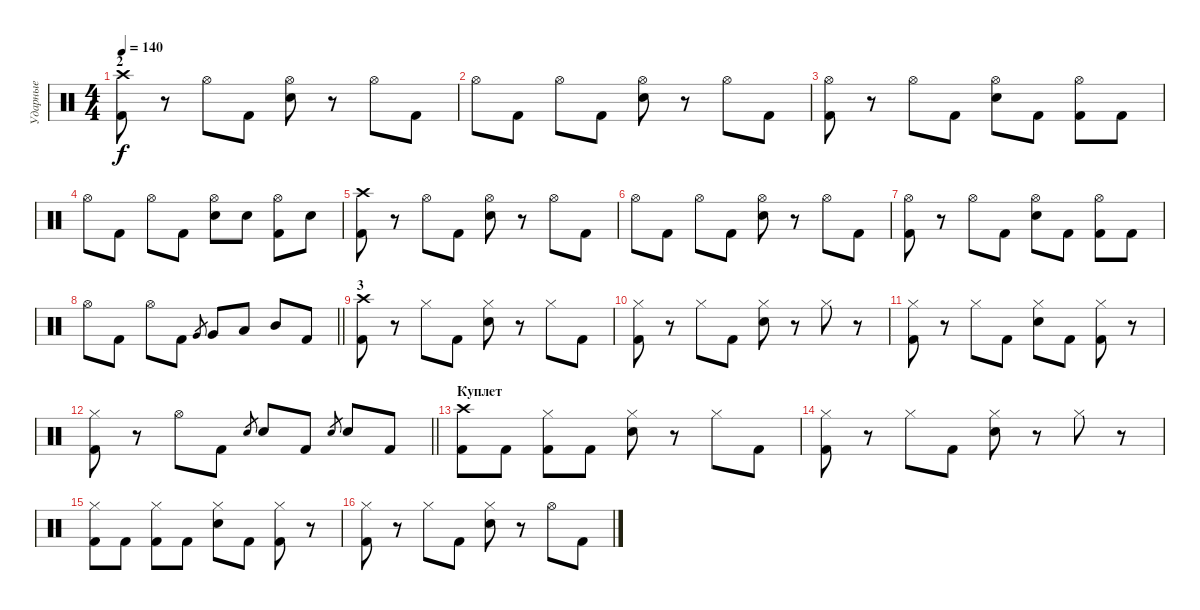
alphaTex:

\track ("Ударные" "Ударные") {instrument percussion}
\staff {score}
\articulation defaults
\ts (4 4)
\section ("" "2")
\tempo 140
\clef neutral
\ks c
("Crash high (hit)" "Kick (hit) 2").8{dy f} r.8 "Hi-Hat (open)".8 "Kick (hit) 2".8 ("Hi-Hat (open)" "Snare (hit) 2").8 r.8 "Hi-Hat (open)".8 "Kick (hit) 2".8 |
"Hi-Hat (open)".8 "Kick (hit) 2".8 "Hi-Hat (open)".8 "Kick (hit) 2".8 ("Hi-Hat (open)" "Snare (hit) 2").8 r.8 "Hi-Hat (open)".8 "Kick (hit) 2".8 |
("Hi-Hat (open)" "Kick (hit) 2").8 r.8 "Hi-Hat (open)".8 "Kick (hit) 2".8 ("Hi-Hat (open)" "Snare (hit) 2").8 "Kick (hit) 2".8 ("Hi-Hat (open)" "Kick (hit) 2").8 "Kick (hit) 2".8 |
"Hi-Hat (open)".8 "Kick (hit) 2".8 "Hi-Hat (open)".8 "Kick (hit) 2".8 ("Hi-Hat (open)" "Snare (hit) 2").8 "Snare (hit) 2".8 ("Hi-Hat (open)" "Kick (hit) 2").8 "Snare (hit) 2".8 |
("Crash high (hit)" "Kick (hit) 2").8 r.8 "Hi-Hat (open)".8 "Kick (hit) 2".8 ("Hi-Hat (open)" "Snare (hit) 2").8 r.8 "Hi-Hat (open)".8 "Kick (hit) 2".8 |
"Hi-Hat (open)".8 "Kick (hit) 2".8 "Hi-Hat (open)".8 "Kick (hit) 2".8 ("Hi-Hat (open)" "Snare (hit) 2").8 r.8 "Hi-Hat (open)".8 "Kick (hit) 2".8 |
("Hi-Hat (open)" "Kick (hit) 2").8 r.8 "Hi-Hat (open)".8 "Kick (hit) 2".8 ("Hi-Hat (open)" "Snare (hit) 2").8 "Kick (hit) 2".8 ("Hi-Hat (open)" "Kick (hit) 2").8 "Kick (hit) 2".8 |
\barLineRight lightlight "Hi-Hat (open)".8 "Kick (hit) 2".8 "Hi-Hat (open)".8 "Kick (hit) 2".8 "Very Low Tom (hit)".8{gr} "Very Low Tom (hit)".8 "Low Tom (hit)".8 "Mid Tom (hit)".8 "Kick (hit) 2".8
|
\section ("" "3")
("Crash high (hit)" "Kick (hit) 2").8 r.8 "Hi-Hat (closed)".8 "Kick (hit) 2".8 ("Hi-Hat (closed)" "Snare (hit) 2").8 r.8 "Hi-Hat (closed)".8 "Kick (hit) 2".8 |
("Hi-Hat (closed)" "Kick (hit) 2").8 r.8 "Hi-Hat (closed)".8 "Kick (hit) 2".8 ("Hi-Hat (closed)" "Snare (hit) 2").8 r.8 "Hi-Hat (closed)".8 r.8 |
("Hi-Hat (closed)" "Kick (hit) 2").8 r.8 "Hi-Hat (closed)".8 "Kick (hit) 2".8 ("Hi-Hat (closed)" "Snare (hit) 2").8 "Kick (hit) 2".8 ("Hi-Hat (closed)" "Kick (hit) 2").8 r.8 |
\barLineRight lightlight
("Hi-Hat (closed)" "Kick (hit) 2").8 r.8 "Hi-Hat (open)".8 "Kick (hit) 2".8 "Snare (hit) 2".8{gr} "Snare (hit) 2".8 "Kick (hit) 2".8 "Snare (hit) 2".8{gr} "Snare (hit) 2".8 "Kick (hit) 2".8 |
\section ("" "Куплет")
("Crash high (hit)" "Kick (hit) 2").8 "Kick (hit) 2".8 ("Hi-Hat (closed)" "Kick (hit) 2").8 "Kick (hit) 2".8 ("Hi-Hat (closed)" "Snare (hit) 2").8 r.8 "Hi-Hat (closed)".8 "Kick (hit) 2".8 |
("Hi-Hat (closed)" "Kick (hit) 2").8 r.8 "Hi-Hat (closed)".8 "Kick (hit) 2".8 ("Hi-Hat (closed)" "Snare (hit) 2").8 r.8 "Hi-Hat (closed)".8 r.8 |
("Hi-Hat (closed)" "Kick (hit) 2").8 "Kick (hit) 2".8 ("Hi-Hat (closed)" "Kick (hit) 2").8 "Kick (hit) 2".8 ("Hi-Hat (closed)" "Snare (hit) 2").8 "Kick (hit) 2".8 ("Hi-Hat (closed)" "Kick (hit) 2").8 r.8 |
("Hi-Hat (closed)" "Kick (hit) 2").8 r.8 "Hi-Hat (closed)".8 "Kick (hit) 2".8 ("Hi-Hat (closed)" "Snare (hit) 2").8 r.8 "Hi-Hat (open)".8 "Kick (hit) 2".8
